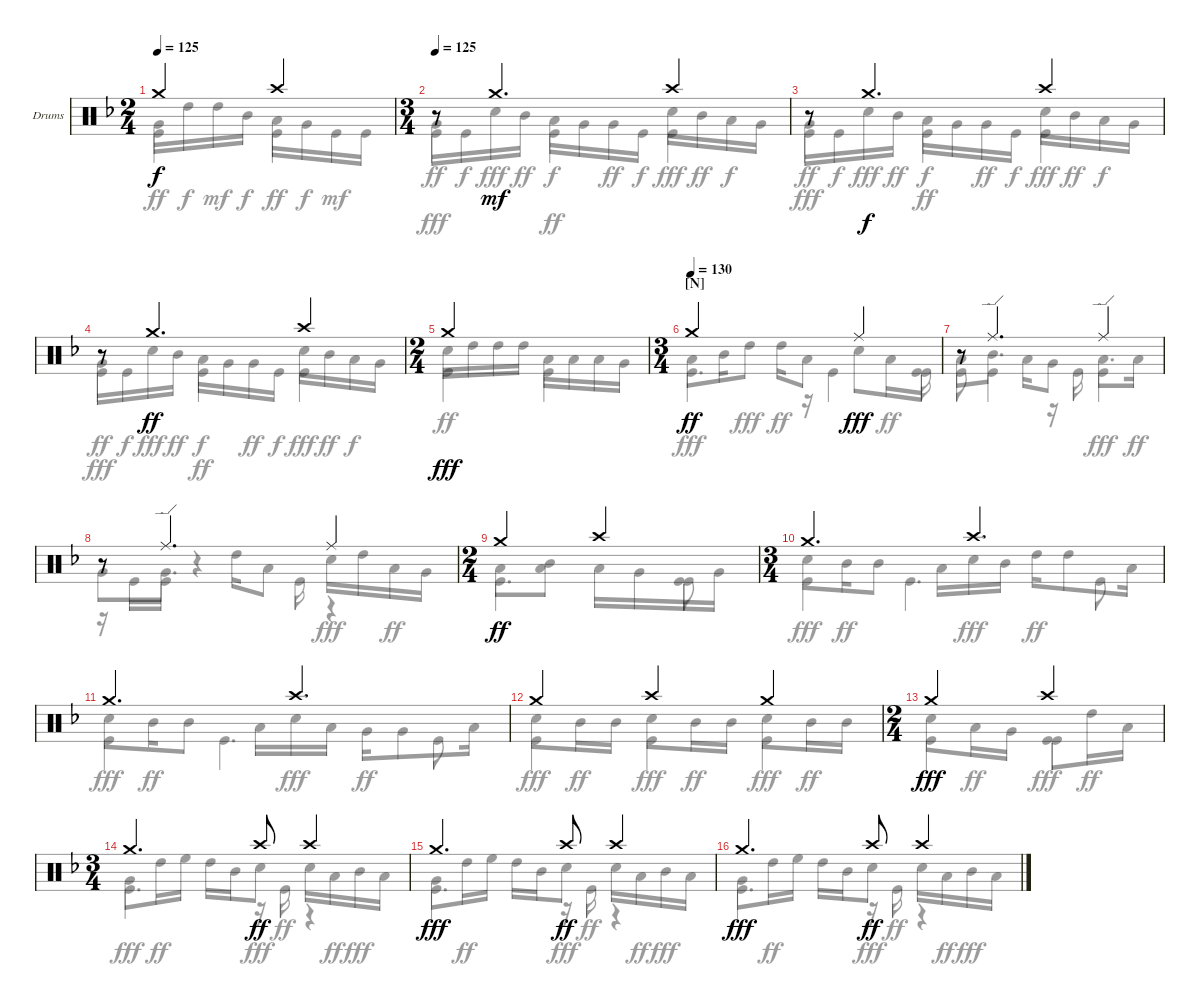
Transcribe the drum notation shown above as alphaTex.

\defaultSystemsLayout 4
\bracketExtendMode groupsimilarinstruments
\firstSystemTrackNameOrientation horizontal
\otherSystemsTrackNameOrientation horizontal
\track ("Drumkit" "Drums") {instrument percussion}
\staff {score}
\articulation defaults
\voice
\ts (2 4)
\tempo 125
\clef neutral
\ks f "Crash medium (hit)".4{dy f} "Crash high (hit)".4
|
\ts (3 4)
\tempo 125
r.8 "Crash medium (hit)".4{d dy mf} "Crash high (hit)".4 |
r.8 "Crash medium (hit)".4{d dy f} "Crash high (hit)".4 |
r.8 "Crash medium (hit)".4{d dy ff} "Crash high (hit)".4 |
\ts (2 4)
"Crash medium (hit)".2{dy fff} |
\ts (3 4)
\section ("N" "")
\tempo (130)
"Crash medium (hit)".2{dy ff} "Ride (middle)".4{dy fff} |
r.8 "Ride (edge)".4{d} "Ride (edge)".4 |
r.8 "Ride (edge)".4{d} "Ride (middle)".4 |
\ts (2 4)
"Crash medium (hit)".4{dy ff} "Crash high (hit)".4 |
\ts (3 4)
"Crash medium (hit)".4{d} "Crash high (hit)".4{d} |
"Crash medium (hit)".4{d} "Crash high (hit)".4{d} |
"Crash medium (hit)".4 "Crash high (hit)".4 "Crash medium (hit)".4 |
\ts (2 4)
"Crash medium (hit)".4{dy fff} "Crash high (hit)".4 |
\ts (3 4)
"Crash medium (hit)".4{d} "Crash high (hit)".8{dy ff} "Crash high (hit)".4 |
"Crash medium (hit)".4{d dy fff} "Crash high (hit)".8{dy ff} "Crash high (hit)".4 |
"Crash medium (hit)".4{d dy fff} "Crash high (hit)".8{dy ff} "Crash high (hit)".4
\voice
\clef neutral
\ottava regular
\simile none
\ks f "Very Low Tom (hit)".16{dy ff} "High Tom (hit)".16{dy f} "High Tom (hit)".16{dy mf} "Mid Tom (hit)".16{dy f} "Low Tom (hit)".16{dy ff} "Very Low Tom (hit)".16{dy f} "Kick (hit)".16{dy mf} "Kick (hit)".16
|
"Very Low Tom (hit)".16{dy ff} "Kick (hit)".16{dy f} "Snare (hit) 2".16{dy fff} "Mid Tom (hit)".16{dy ff} "Low Tom (hit)".16{dy f} "Very Low Tom (hit)".16 "Very Low Tom (hit)".16{dy ff} "Kick (hit)".16{dy f} "Snare (hit) 2".16{dy fff} "Mid Tom (hit)".16{dy ff} "Low Tom (hit)".16{dy f} "Very Low Tom (hit)".16 |
"Very Low Tom (hit)".16{dy ff} "Kick (hit)".16{dy f} "Snare (hit) 2".16{dy fff} "Mid Tom (hit)".16{dy ff} "Low Tom (hit)".16{dy f} "Very Low Tom (hit)".16 "Very Low Tom (hit)".16{dy ff} "Kick (hit)".16{dy f} "Snare (hit) 2".16{dy fff} "Mid Tom (hit)".16{dy ff} "Low Tom (hit)".16{dy f} "Very Low Tom (hit)".16 |
"Very Low Tom (hit)".16{dy ff} "Kick (hit)".16{dy f} "Snare (hit) 2".16{dy fff} "Mid Tom (hit)".16{dy ff} "Low Tom (hit)".16{dy f} "Very Low Tom (hit)".16 "Very Low Tom (hit)".16{dy ff} "Kick (hit)".16{dy f} "Snare (hit) 2".16{dy fff} "Mid Tom (hit)".16{dy ff} "Low Tom (hit)".16{dy f} "Very Low Tom (hit)".16 |
"Snare (hit) 2".16{dy ff} "High Tom (hit)".16 "High Tom (hit)".16 "High Tom (hit)".16 "Low Tom (hit)".16 "Low Tom (hit)".16 "Low Tom (hit)".16 "Very Low Tom (hit)".16 |
"Low Tom (hit)".8 "Mid Tom (hit)".16 "High Tom (hit)".8{dy fff} "High Tom (hit)".16{dy ff} "Low Tom (hit)".8 "Snare (hit) 2".8{dy fff} "Low Tom (hit)".16{dy ff} "Kick (hit)".16 |
"Low Tom (hit)".8 "Mid Tom (hit)".8{d} "Low Tom (hit)".16 "Very Low Tom (hit)".8 "Low Tom (hit)".8{d dy fff} "Low Tom (hit)".16{dy ff} |
"Very Low Tom (hit)".8 "Very Low Tom (hit)".8{d} "High Tom (hit)".16 "Low Tom (hit)".8 "Snare (hit) 2".16{dy fff} "High Tom (hit)".16 "Low Tom (hit)".16{dy ff} "Very Low Tom (hit)".16 |
"Low Tom (hit)".8 ("Low Tom (hit)" "Mid Tom (hit)").8 "Low Tom (hit)".16 "Very Low Tom (hit)".16 "Kick (hit)".16 "Very Low Tom (hit)".16 |
"Snare (hit) 2".8{dy fff} "Mid Tom (hit)".16{dy ff} "Mid Tom (hit)".8 "Low Tom (hit)".16 "Snare (hit) 2".16{dy fff} "Mid Tom (hit)".16 "High Tom (hit)".16{dy ff} "High Tom (hit)".8 "Low Tom (hit)".16 |
"Snare (hit) 2".8{dy fff} "Mid Tom (hit)".16{dy ff} "Mid Tom (hit)".8 "Low Tom (hit)".16 "Snare (hit) 2".16{dy fff} "Low Tom (hit)".16 "Very Low Tom (hit)".16{dy ff} "Very Low Tom (hit)".8 "Low Tom (hit)".16 |
"Snare (hit) 2".8{dy fff} "Mid Tom (hit)".16{dy ff} "Mid Tom (hit)".16 "Snare (hit) 2".8{dy fff} "Mid Tom (hit)".16{dy ff} "Mid Tom (hit)".16 "Snare (hit) 2".8{dy fff} "Mid Tom (hit)".16{dy ff} "Mid Tom (hit)".16 |
"Snare (hit) 2".8{dy fff} "Low Tom (hit)".16{dy ff} "Very Low Tom (hit)".16 "Kick (hit)".8{dy fff} "High Tom (hit)".16{dy ff} "Low Tom (hit)".16 |
"Very Low Tom (hit)".8{dy fff} "High Tom (hit)".16{dy ff} "High Floor Tom (hit)".16 "High Tom (hit)".16 "Mid Tom (hit)".16 "Snare (hit) 2".8{dy fff} "Snare (hit) 2".16 "Low Tom (hit)".16{dy ff} "Mid Tom (hit)".16{dy fff} "Low Tom (hit)".16 |
"Very Low Tom (hit)".8 "High Tom (hit)".16{dy ff} "High Floor Tom (hit)".16 "High Tom (hit)".16 "Mid Tom (hit)".16 "Snare (hit) 2".8{dy fff} "Snare (hit) 2".16 "Low Tom (hit)".16{dy ff} "Mid Tom (hit)".16{dy fff} "Low Tom (hit)".16 |
"Very Low Tom (hit)".8 "High Tom (hit)".16{dy ff} "High Floor Tom (hit)".16 "High Tom (hit)".16 "Mid Tom (hit)".16 "Snare (hit) 2".8{dy fff} "Snare (hit) 2".16 "Low Tom (hit)".16{dy ff} "Mid Tom (hit)".16{dy fff} "Low Tom (hit)".16
\voice
\clef neutral
\ottava regular
\simile none
\ks f "Kick (hit)".4{dy ff} "Kick (hit)".4
|
"Kick (hit)".4{dy fff} "Kick (hit)".4{dy ff} "Kick (hit)".4 |
"Kick (hit)".4{dy fff} "Kick (hit)".4{dy ff} "Kick (hit)".4 |
"Kick (hit)".4{dy fff} "Kick (hit)".4{dy ff} "Kick (hit)".4 |
"Kick (hit)".4 "Kick (hit)".4 |
"Kick (hit)".4{d dy fff} r.16 "Kick (hit)".4 "Kick (hit)".16 |
"Kick (hit)".8 "Kick (hit)".4 r.16 "Kick (hit)".16 "Kick (hit)".4 |
r.16 "Kick (hit)".16 "Kick (hit)".16 r.4 "Kick (hit)".16 r.4 |
"Kick (hit)".4{d dy ff} "Kick (hit)".8 |
"Kick (hit)".4{dy fff} "Kick (hit)".4{d} "Kick (hit)".8 |
"Kick (hit)".4 "Kick (hit)".4{d} "Kick (hit)".8 |
"Kick (hit)".4 "Kick (hit)".4 "Kick (hit)".4 |
"Kick (hit)".4 "Kick (hit)".4 |
"Kick (hit)".4{d} r.16 "Kick (hit)".16{dy ff} r.4 |
"Kick (hit)".4{d dy fff} r.16 "Kick (hit)".16{dy ff} r.4 |
"Kick (hit)".4{d dy fff} r.16 "Kick (hit)".16{dy ff} r.4
